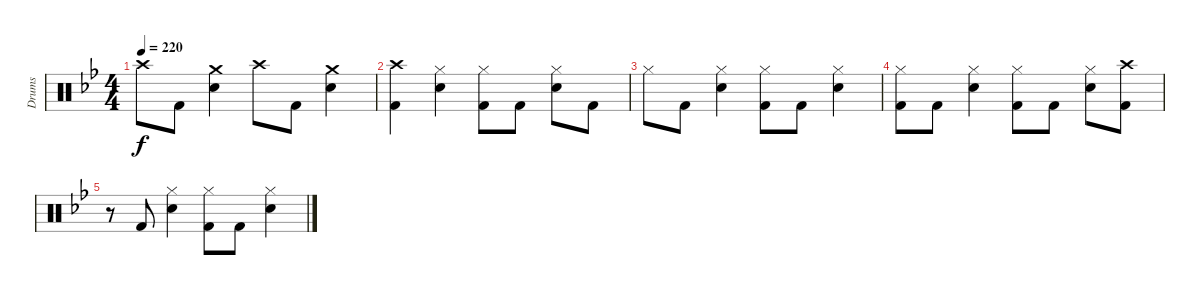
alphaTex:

\track ("Drums" "Drums") {instrument percussion}
\staff {score}
\articulation defaults
\ts (4 4)
\tempo 220
\clef neutral
\ks gminor "Crash high (hit)".8{dy f} "Kick (hit) 2".8
("Snare (hit) 2" "Crash medium (hit)").4 "Crash high (hit)".8 "Kick (hit) 2".8 ("Snare (hit) 2" "Crash medium (hit)").4 |
("Kick (hit) 2" "Crash high (hit)").4 ("Snare (hit) 2" "Hi-Hat (closed)").4 ("Kick (hit) 2" "Hi-Hat (closed)").8 "Kick (hit) 2".8 ("Snare (hit) 2" "Hi-Hat (closed)").8 "Kick (hit) 2".8 |
"Hi-Hat (closed)".8 "Kick (hit) 2".8 ("Snare (hit) 2" "Hi-Hat (closed)").4 ("Kick (hit) 2" "Hi-Hat (closed)").8 "Kick (hit) 2".8 ("Snare (hit) 2" "Hi-Hat (closed)").4 |
("Kick (hit) 2" "Hi-Hat (closed)").8 "Kick (hit) 2".8 ("Snare (hit) 2" "Hi-Hat (closed)").4 ("Kick (hit) 2" "Hi-Hat (closed)").8 "Kick (hit) 2".8 ("Snare (hit) 2" "Hi-Hat (closed)").8 ("Kick (hit) 2" "Crash high (hit)").8 |
r.8 "Kick (hit) 2".8 ("Snare (hit) 2" "Hi-Hat (closed)").4 ("Kick (hit) 2" "Hi-Hat (closed)").8 "Kick (hit) 2".8 ("Snare (hit) 2" "Hi-Hat (closed)").4
